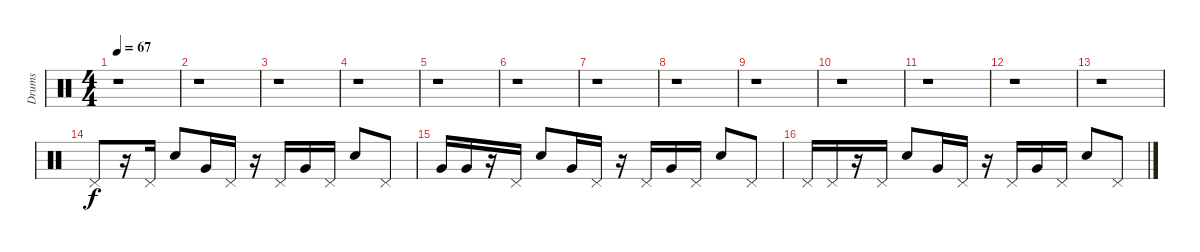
\track ("Drums" "Drums") {instrument percussion}
\staff {score}
\articulation defaults
\ts (4 4)
\tempo 67
\clef neutral
\ks c
r.1{dy f} |
r.1 |
r.1 |
r.1 |
r.1 |
r.1 |
r.1 |
r.1 |
r.1 |
r.1 |
r.1 |
r.1 |
r.1 |
"Pedal Hi-Hat (hit)".8{volume 0} r.16{volume 10} "Pedal Hi-Hat (hit)".16 "Electric Snare (hit)".8 "Very Low Tom (hit)".16 "Pedal Hi-Hat (hit)".16 r.16 "Pedal Hi-Hat (hit)".16 "Very Low Tom (hit)".16 "Pedal Hi-Hat (hit)".16 "Electric Snare (hit)".8 "Pedal Hi-Hat (hit)".8 |
"Very Low Tom (hit)".16 "Very Low Tom (hit)".16 r.16 "Pedal Hi-Hat (hit)".16 "Electric Snare (hit)".8 "Very Low Tom (hit)".16 "Pedal Hi-Hat (hit)".16 r.16 "Pedal Hi-Hat (hit)".16 "Very Low Tom (hit)".16 "Pedal Hi-Hat (hit)".16 "Electric Snare (hit)".8 "Pedal Hi-Hat (hit)".8 |
"Pedal Hi-Hat (hit)".16 "Pedal Hi-Hat (hit)".16 r.16 "Pedal Hi-Hat (hit)".16 "Electric Snare (hit)".8 "Very Low Tom (hit)".16 "Pedal Hi-Hat (hit)".16 r.16 "Pedal Hi-Hat (hit)".16 "Very Low Tom (hit)".16 "Pedal Hi-Hat (hit)".16 "Electric Snare (hit)".8 "Pedal Hi-Hat (hit)".8
